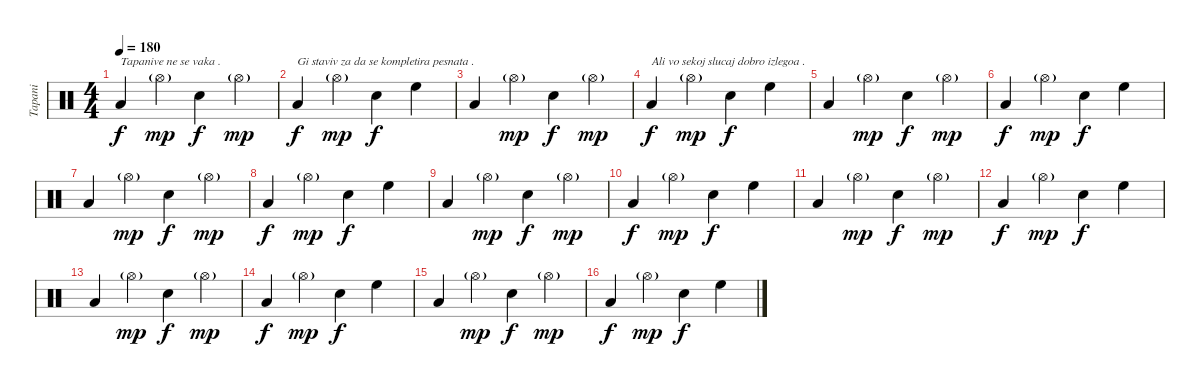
\track ("Tapani" "Tapani") {instrument percussion}
\staff {score}
\articulation defaults
\ts (4 4)
\tempo 180
\clef neutral
\ks c "Low Tom (hit)".4{txt "Tapanive ne se vaka ." dy f} "Hi-Hat (open)"{g}.4{dy mp} "Electric Snare (hit)".4{dy f} "Hi-Hat (open)"{g}.4{dy mp}
|
"Low Tom (hit)".4{txt "Gi staviv za da se kompletira pesnata ." dy f} "Hi-Hat (open)"{g}.4{dy mp} "Electric Snare (hit)".4{dy f} "High Floor Tom (hit)".4 |
"Low Tom (hit)".4 "Hi-Hat (open)"{g}.4{dy mp} "Electric Snare (hit)".4{dy f} "Hi-Hat (open)"{g}.4{dy mp} |
"Low Tom (hit)".4{txt "Ali vo sekoj slucaj dobro izlegoa ." dy f} "Hi-Hat (open)"{g}.4{dy mp} "Electric Snare (hit)".4{dy f} "High Floor Tom (hit)".4 |
"Low Tom (hit)".4 "Hi-Hat (open)"{g}.4{dy mp} "Electric Snare (hit)".4{dy f} "Hi-Hat (open)"{g}.4{dy mp} |
"Low Tom (hit)".4{dy f} "Hi-Hat (open)"{g}.4{dy mp} "Electric Snare (hit)".4{dy f} "High Floor Tom (hit)".4 |
"Low Tom (hit)".4 "Hi-Hat (open)"{g}.4{dy mp} "Electric Snare (hit)".4{dy f} "Hi-Hat (open)"{g}.4{dy mp} |
"Low Tom (hit)".4{dy f} "Hi-Hat (open)"{g}.4{dy mp} "Electric Snare (hit)".4{dy f} "High Floor Tom (hit)".4 |
"Low Tom (hit)".4 "Hi-Hat (open)"{g}.4{dy mp} "Electric Snare (hit)".4{dy f} "Hi-Hat (open)"{g}.4{dy mp} |
"Low Tom (hit)".4{dy f} "Hi-Hat (open)"{g}.4{dy mp} "Electric Snare (hit)".4{dy f} "High Floor Tom (hit)".4 |
"Low Tom (hit)".4 "Hi-Hat (open)"{g}.4{dy mp} "Electric Snare (hit)".4{dy f} "Hi-Hat (open)"{g}.4{dy mp} |
"Low Tom (hit)".4{dy f} "Hi-Hat (open)"{g}.4{dy mp} "Electric Snare (hit)".4{dy f} "High Floor Tom (hit)".4 |
"Low Tom (hit)".4 "Hi-Hat (open)"{g}.4{dy mp} "Electric Snare (hit)".4{dy f} "Hi-Hat (open)"{g}.4{dy mp} |
"Low Tom (hit)".4{dy f} "Hi-Hat (open)"{g}.4{dy mp} "Electric Snare (hit)".4{dy f} "High Floor Tom (hit)".4 |
"Low Tom (hit)".4 "Hi-Hat (open)"{g}.4{dy mp} "Electric Snare (hit)".4{dy f} "Hi-Hat (open)"{g}.4{dy mp} |
"Low Tom (hit)".4{dy f} "Hi-Hat (open)"{g}.4{dy mp} "Electric Snare (hit)".4{dy f} "High Floor Tom (hit)".4
